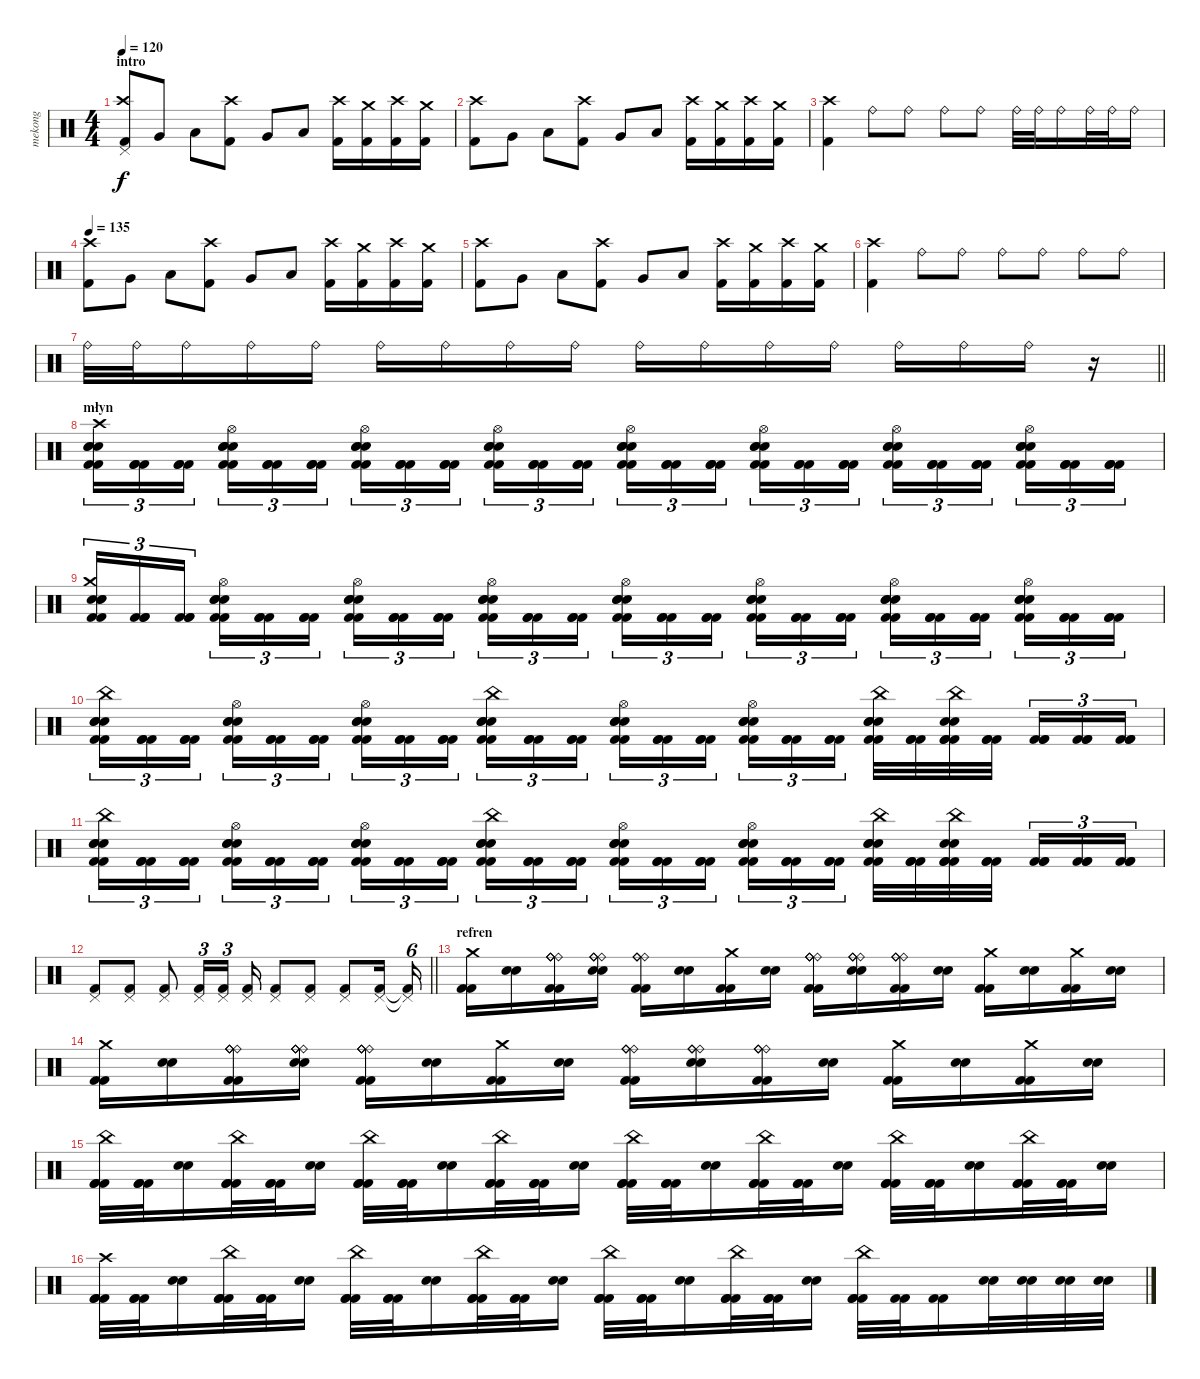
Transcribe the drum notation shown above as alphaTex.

\track ("mekong" "mekong") {instrument percussion}
\staff {score}
\articulation defaults
\ts (4 4)
\section ("" "intro")
\tempo 120
\tempo 135
\tempo 120
\clef neutral
\ks c
("Pedal Hi-Hat (hit)" "Crash high (hit)" "Kick (hit) 2").8{dy f} "Very Low Tom (hit)".8 "Low Floor Tom (hit)".8 ("Crash high (hit)" "Kick (hit) 2").8 "Very Low Tom (hit)".8 "Low Floor Tom (hit)".8 ("Crash high (hit)" "Kick (hit) 2").16 ("Crash medium (hit)" "Kick (hit) 2").16 ("Crash high (hit)" "Kick (hit) 2").16 ("Crash medium (hit)" "Kick (hit) 2").16 |
("Crash high (hit)" "Kick (hit) 2").8 "Very Low Tom (hit)".8 "Low Floor Tom (hit)".8 ("Crash high (hit)" "Kick (hit) 2").8 "Very Low Tom (hit)".8 "Low Floor Tom (hit)".8 ("Crash high (hit)" "Kick (hit) 2").16 ("Crash medium (hit)" "Kick (hit) 2").16 ("Crash high (hit)" "Kick (hit) 2").16 ("Crash medium (hit)" "Kick (hit) 2").16 |
("Crash high (hit)" "Kick (hit) 2").4 "Ride (bell)".8 "Ride (bell)".8 "Ride (bell)".8 "Ride (bell)".8 "Ride (bell)".32 "Ride (bell)".32 "Ride (bell)".16 "Ride (bell)".32 "Ride (bell)".32 "Ride (bell)".16 |
\tempo 135
("Crash high (hit)" "Kick (hit) 2").8 "Very Low Tom (hit)".8 "Low Floor Tom (hit)".8 ("Crash high (hit)" "Kick (hit) 2").8 "Very Low Tom (hit)".8 "Low Floor Tom (hit)".8 ("Crash high (hit)" "Kick (hit) 2").16 ("Crash medium (hit)" "Kick (hit) 2").16 ("Crash high (hit)" "Kick (hit) 2").16 ("Crash medium (hit)" "Kick (hit) 2").16 |
("Crash high (hit)" "Kick (hit) 2").8 "Very Low Tom (hit)".8 "Low Floor Tom (hit)".8 ("Crash high (hit)" "Kick (hit) 2").8 "Very Low Tom (hit)".8 "Low Floor Tom (hit)".8 ("Crash high (hit)" "Kick (hit) 2").16 ("Crash medium (hit)" "Kick (hit) 2").16 ("Crash high (hit)" "Kick (hit) 2").16 ("Crash medium (hit)" "Kick (hit) 2").16 |
("Crash high (hit)" "Kick (hit) 2").4 "Ride (bell)".8 "Ride (bell)".8 "Ride (bell)".8 "Ride (bell)".8 "Ride (bell)".8 "Ride (bell)".8 |
\barLineRight lightlight "Ride (bell)".32 "Ride (bell)".32 "Ride (bell)".16 "Ride (bell)".16 "Ride (bell)".16 "Ride (bell)".16 "Ride (bell)".16 "Ride (bell)".16 "Ride (bell)".16 "Ride (bell)".16 "Ride (bell)".16 "Ride (bell)".16 "Ride (bell)".16 "Ride (bell)".16 "Ride (bell)".16 "Ride (bell)".16
r.16 |
\section ("" "młyn")
("Crash high (hit)" "Kick (hit) 2" "Kick (hit) 2" "Electric Snare (hit)" "Electric Snare (hit)" "Electric Snare (hit)").16{tu (3 2)} ("Kick (hit) 2" "Kick (hit) 2" "Kick (hit) 2").16{tu (3 2)} ("Kick (hit) 2" "Kick (hit) 2" "Kick (hit) 2").16{tu (3 2)} ("Hi-Hat (open)" "Kick (hit) 2" "Kick (hit) 2" "Electric Snare (hit)" "Electric Snare (hit)" "Electric Snare (hit)").16{tu (3 2)} ("Kick (hit) 2" "Kick (hit) 2" "Kick (hit) 2").16{tu (3 2)} ("Kick (hit) 2" "Kick (hit) 2" "Kick (hit) 2").16{tu (3 2)} ("Hi-Hat (open)" "Kick (hit) 2" "Kick (hit) 2" "Electric Snare (hit)" "Electric Snare (hit)" "Electric Snare (hit)").16{tu (3 2)} ("Kick (hit) 2" "Kick (hit) 2" "Kick (hit) 2").16{tu (3 2)} ("Kick (hit) 2" "Kick (hit) 2" "Kick (hit) 2").16{tu (3 2)} ("Hi-Hat (open)" "Kick (hit) 2" "Kick (hit) 2" "Electric Snare (hit)" "Electric Snare (hit)" "Electric Snare (hit)").16{tu (3 2)} ("Kick (hit) 2" "Kick (hit) 2" "Kick (hit) 2").16{tu (3 2)} ("Kick (hit) 2" "Kick (hit) 2" "Kick (hit) 2").16{tu (3 2)} ("Hi-Hat (open)" "Kick (hit) 2" "Kick (hit) 2" "Electric Snare (hit)" "Electric Snare (hit)" "Electric Snare (hit)").16{tu (3 2)} ("Kick (hit) 2" "Kick (hit) 2" "Kick (hit) 2").16{tu (3 2)} ("Kick (hit) 2" "Kick (hit) 2" "Kick (hit) 2").16{tu (3 2)} ("Hi-Hat (open)" "Kick (hit) 2" "Kick (hit) 2" "Electric Snare (hit)" "Electric Snare (hit)" "Electric Snare (hit)").16{tu (3 2)} ("Kick (hit) 2" "Kick (hit) 2" "Kick (hit) 2").16{tu (3 2)} ("Kick (hit) 2" "Kick (hit) 2" "Kick (hit) 2").16{tu (3 2)} ("Hi-Hat (open)" "Kick (hit) 2" "Kick (hit) 2" "Electric Snare (hit)" "Electric Snare (hit)" "Electric Snare (hit)").16{tu (3 2)} ("Kick (hit) 2" "Kick (hit) 2" "Kick (hit) 2").16{tu (3 2)} ("Kick (hit) 2" "Kick (hit) 2" "Kick (hit) 2").16{tu (3 2)} ("Hi-Hat (open)" "Kick (hit) 2" "Kick (hit) 2" "Electric Snare (hit)" "Electric Snare (hit)" "Electric Snare (hit)").16{tu (3 2)} ("Kick (hit) 2" "Kick (hit) 2" "Kick (hit) 2").16{tu (3 2)} ("Kick (hit) 2" "Kick (hit) 2" "Kick (hit) 2").16{tu (3 2)} |
("Crash medium (hit)" "Kick (hit) 2" "Kick (hit) 2" "Electric Snare (hit)" "Electric Snare (hit)" "Electric Snare (hit)").16{tu (3 2)} ("Kick (hit) 2" "Kick (hit) 2" "Kick (hit) 2").16{tu (3 2)} ("Kick (hit) 2" "Kick (hit) 2" "Kick (hit) 2").16{tu (3 2)} ("Hi-Hat (open)" "Kick (hit) 2" "Kick (hit) 2" "Electric Snare (hit)" "Electric Snare (hit)" "Electric Snare (hit)").16{tu (3 2)} ("Kick (hit) 2" "Kick (hit) 2" "Kick (hit) 2").16{tu (3 2)} ("Kick (hit) 2" "Kick (hit) 2" "Kick (hit) 2").16{tu (3 2)} ("Hi-Hat (open)" "Kick (hit) 2" "Kick (hit) 2" "Electric Snare (hit)" "Electric Snare (hit)" "Electric Snare (hit)").16{tu (3 2)} ("Kick (hit) 2" "Kick (hit) 2" "Kick (hit) 2").16{tu (3 2)} ("Kick (hit) 2" "Kick (hit) 2" "Kick (hit) 2").16{tu (3 2)} ("Hi-Hat (open)" "Kick (hit) 2" "Kick (hit) 2" "Electric Snare (hit)" "Electric Snare (hit)" "Electric Snare (hit)").16{tu (3 2)} ("Kick (hit) 2" "Kick (hit) 2" "Kick (hit) 2").16{tu (3 2)} ("Kick (hit) 2" "Kick (hit) 2" "Kick (hit) 2").16{tu (3 2)} ("Hi-Hat (open)" "Kick (hit) 2" "Kick (hit) 2" "Electric Snare (hit)" "Electric Snare (hit)" "Electric Snare (hit)").16{tu (3 2)} ("Kick (hit) 2" "Kick (hit) 2" "Kick (hit) 2").16{tu (3 2)} ("Kick (hit) 2" "Kick (hit) 2" "Kick (hit) 2").16{tu (3 2)} ("Hi-Hat (open)" "Kick (hit) 2" "Kick (hit) 2" "Electric Snare (hit)" "Electric Snare (hit)" "Electric Snare (hit)").16{tu (3 2)} ("Kick (hit) 2" "Kick (hit) 2" "Kick (hit) 2").16{tu (3 2)} ("Kick (hit) 2" "Kick (hit) 2" "Kick (hit) 2").16{tu (3 2)} ("Hi-Hat (open)" "Kick (hit) 2" "Kick (hit) 2" "Electric Snare (hit)" "Electric Snare (hit)" "Electric Snare (hit)").16{tu (3 2)} ("Kick (hit) 2" "Kick (hit) 2" "Kick (hit) 2").16{tu (3 2)} ("Kick (hit) 2" "Kick (hit) 2" "Kick (hit) 2").16{tu (3 2)} ("Hi-Hat (open)" "Kick (hit) 2" "Kick (hit) 2" "Electric Snare (hit)" "Electric Snare (hit)" "Electric Snare (hit)").16{tu (3 2)} ("Kick (hit) 2" "Kick (hit) 2" "Kick (hit) 2").16{tu (3 2)} ("Kick (hit) 2" "Kick (hit) 2" "Kick (hit) 2").16{tu (3 2)} |
("China (hit)" "Kick (hit) 2" "Kick (hit) 2" "Electric Snare (hit)" "Electric Snare (hit)" "Electric Snare (hit)").16{tu (3 2)} ("Kick (hit) 2" "Kick (hit) 2" "Kick (hit) 2").16{tu (3 2)} ("Kick (hit) 2" "Kick (hit) 2" "Kick (hit) 2").16{tu (3 2)} ("Hi-Hat (open)" "Kick (hit) 2" "Kick (hit) 2" "Electric Snare (hit)" "Electric Snare (hit)" "Electric Snare (hit)").16{tu (3 2)} ("Kick (hit) 2" "Kick (hit) 2" "Kick (hit) 2").16{tu (3 2)} ("Kick (hit) 2" "Kick (hit) 2" "Kick (hit) 2").16{tu (3 2)} ("Hi-Hat (open)" "Kick (hit) 2" "Kick (hit) 2" "Electric Snare (hit)" "Electric Snare (hit)" "Electric Snare (hit)").16{tu (3 2)} ("Kick (hit) 2" "Kick (hit) 2" "Kick (hit) 2").16{tu (3 2)} ("Kick (hit) 2" "Kick (hit) 2" "Kick (hit) 2").16{tu (3 2)} ("China (hit)" "Kick (hit) 2" "Kick (hit) 2" "Electric Snare (hit)" "Electric Snare (hit)" "Electric Snare (hit)").16{tu (3 2)} ("Kick (hit) 2" "Kick (hit) 2" "Kick (hit) 2").16{tu (3 2)} ("Kick (hit) 2" "Kick (hit) 2" "Kick (hit) 2").16{tu (3 2)} ("Hi-Hat (open)" "Kick (hit) 2" "Kick (hit) 2" "Electric Snare (hit)" "Electric Snare (hit)" "Electric Snare (hit)").16{tu (3 2)} ("Kick (hit) 2" "Kick (hit) 2" "Kick (hit) 2").16{tu (3 2)} ("Kick (hit) 2" "Kick (hit) 2" "Kick (hit) 2").16{tu (3 2)} ("Hi-Hat (open)" "Kick (hit) 2" "Kick (hit) 2" "Electric Snare (hit)" "Electric Snare (hit)" "Electric Snare (hit)").16{tu (3 2)} ("Kick (hit) 2" "Kick (hit) 2" "Kick (hit) 2").16{tu (3 2)} ("Kick (hit) 2" "Kick (hit) 2" "Kick (hit) 2").16{tu (3 2)} ("China (hit)" "Kick (hit) 2" "Kick (hit) 2" "Electric Snare (hit)" "Electric Snare (hit)" "Electric Snare (hit)").32 ("Kick (hit) 2" "Kick (hit) 2" "Kick (hit) 2").32 ("China (hit)" "Electric Snare (hit)" "Electric Snare (hit)" "Kick (hit) 2" "Kick (hit) 2" "Kick (hit) 2").32 ("Kick (hit) 2" "Kick (hit) 2" "Kick (hit) 2").32 ("Kick (hit) 2" "Kick (hit) 2" "Kick (hit) 2").16{tu (3 2)} ("Kick (hit) 2" "Kick (hit) 2" "Kick (hit) 2").16{tu (3 2)} ("Kick (hit) 2" "Kick (hit) 2" "Kick (hit) 2").16{tu (3 2)} |
("China (hit)" "Kick (hit) 2" "Kick (hit) 2" "Electric Snare (hit)" "Electric Snare (hit)" "Electric Snare (hit)").16{tu (3 2)} ("Kick (hit) 2" "Kick (hit) 2" "Kick (hit) 2").16{tu (3 2)} ("Kick (hit) 2" "Kick (hit) 2" "Kick (hit) 2").16{tu (3 2)} ("Hi-Hat (open)" "Kick (hit) 2" "Kick (hit) 2" "Electric Snare (hit)" "Electric Snare (hit)" "Electric Snare (hit)").16{tu (3 2)} ("Kick (hit) 2" "Kick (hit) 2" "Kick (hit) 2").16{tu (3 2)} ("Kick (hit) 2" "Kick (hit) 2" "Kick (hit) 2").16{tu (3 2)} ("Hi-Hat (open)" "Kick (hit) 2" "Kick (hit) 2" "Electric Snare (hit)" "Electric Snare (hit)" "Electric Snare (hit)").16{tu (3 2)} ("Kick (hit) 2" "Kick (hit) 2" "Kick (hit) 2").16{tu (3 2)} ("Kick (hit) 2" "Kick (hit) 2" "Kick (hit) 2").16{tu (3 2)} ("China (hit)" "Kick (hit) 2" "Kick (hit) 2" "Electric Snare (hit)" "Electric Snare (hit)" "Electric Snare (hit)").16{tu (3 2)} ("Kick (hit) 2" "Kick (hit) 2" "Kick (hit) 2").16{tu (3 2)} ("Kick (hit) 2" "Kick (hit) 2" "Kick (hit) 2").16{tu (3 2)} ("Hi-Hat (open)" "Kick (hit) 2" "Kick (hit) 2" "Electric Snare (hit)" "Electric Snare (hit)" "Electric Snare (hit)").16{tu (3 2)} ("Kick (hit) 2" "Kick (hit) 2" "Kick (hit) 2").16{tu (3 2)} ("Kick (hit) 2" "Kick (hit) 2" "Kick (hit) 2").16{tu (3 2)} ("Hi-Hat (open)" "Kick (hit) 2" "Kick (hit) 2" "Electric Snare (hit)" "Electric Snare (hit)" "Electric Snare (hit)").16{tu (3 2)} ("Kick (hit) 2" "Kick (hit) 2" "Kick (hit) 2").16{tu (3 2)} ("Kick (hit) 2" "Kick (hit) 2" "Kick (hit) 2").16{tu (3 2)} ("China (hit)" "Kick (hit) 2" "Kick (hit) 2" "Electric Snare (hit)" "Electric Snare (hit)" "Electric Snare (hit)").32 ("Kick (hit) 2" "Kick (hit) 2" "Kick (hit) 2").32 ("China (hit)" "Electric Snare (hit)" "Electric Snare (hit)" "Kick (hit) 2" "Kick (hit) 2" "Kick (hit) 2").32 ("Kick (hit) 2" "Kick (hit) 2" "Kick (hit) 2").32 ("Kick (hit) 2" "Kick (hit) 2" "Kick (hit) 2").16{tu (3 2)} ("Kick (hit) 2" "Kick (hit) 2" "Kick (hit) 2").16{tu (3 2)} ("Kick (hit) 2" "Kick (hit) 2" "Kick (hit) 2").16{tu (3 2)} |
\barLineRight lightlight
("Pedal Hi-Hat (hit)" "Kick (hit) 2").8 ("Pedal Hi-Hat (hit)" "Kick (hit) 2").8 ("Pedal Hi-Hat (hit)" "Kick (hit) 2").8 ("Pedal Hi-Hat (hit)" "Kick (hit) 2").16{tu (3 2)} ("Pedal Hi-Hat (hit)" "Kick (hit) 2").16{tu (3 2)} ("Pedal Hi-Hat (hit)" "Kick (hit) 2").16 ("Pedal Hi-Hat (hit)" "Kick (hit) 2").8 ("Pedal Hi-Hat (hit)" "Kick (hit) 2").8 ("Pedal Hi-Hat (hit)" "Kick (hit) 2").8 ("Pedal Hi-Hat (hit)" "Kick (hit) 2").16 ("Pedal Hi-Hat (hit)"{t} "Kick (hit) 2"{t}).16{tu (6 4)} |
\section ("" "refren")
("Crash medium (hit)" "Kick (hit) 2" "Kick (hit) 2").16 ("Electric Snare (hit)" "Electric Snare (hit)").16 ("Ride (bell)" "Ride (bell)" "Ride (bell)" "Ride (bell)" "Kick (hit) 2" "Kick (hit) 2").16 ("Ride (bell)" "Ride (bell)" "Ride (bell)" "Ride (bell)" "Electric Snare (hit)" "Electric Snare (hit)").16 ("Ride (bell)" "Ride (bell)" "Ride (bell)" "Ride (bell)" "Kick (hit) 2" "Kick (hit) 2").16 ("Electric Snare (hit)" "Electric Snare (hit)").16 ("Crash medium (hit)" "Kick (hit) 2" "Kick (hit) 2").16 ("Electric Snare (hit)" "Electric Snare (hit)").16 ("Ride (bell)" "Ride (bell)" "Ride (bell)" "Ride (bell)" "Kick (hit) 2" "Kick (hit) 2").16 ("Ride (bell)" "Ride (bell)" "Ride (bell)" "Ride (bell)" "Electric Snare (hit)" "Electric Snare (hit)").16 ("Ride (bell)" "Ride (bell)" "Ride (bell)" "Ride (bell)" "Kick (hit) 2" "Kick (hit) 2").16 ("Electric Snare (hit)" "Electric Snare (hit)").16 ("Crash medium (hit)" "Kick (hit) 2" "Kick (hit) 2").16 ("Electric Snare (hit)" "Electric Snare (hit)").16 ("Crash medium (hit)" "Kick (hit) 2" "Kick (hit) 2").16 ("Electric Snare (hit)" "Electric Snare (hit)").16 |
("Crash medium (hit)" "Kick (hit) 2" "Kick (hit) 2").16 ("Electric Snare (hit)" "Electric Snare (hit)").16 ("Ride (bell)" "Ride (bell)" "Ride (bell)" "Ride (bell)" "Kick (hit) 2" "Kick (hit) 2").16 ("Ride (bell)" "Ride (bell)" "Ride (bell)" "Ride (bell)" "Electric Snare (hit)" "Electric Snare (hit)").16 ("Ride (bell)" "Ride (bell)" "Ride (bell)" "Ride (bell)" "Kick (hit) 2" "Kick (hit) 2").16 ("Electric Snare (hit)" "Electric Snare (hit)").16 ("Crash medium (hit)" "Kick (hit) 2" "Kick (hit) 2").16 ("Electric Snare (hit)" "Electric Snare (hit)").16 ("Ride (bell)" "Ride (bell)" "Ride (bell)" "Ride (bell)" "Kick (hit) 2" "Kick (hit) 2").16 ("Ride (bell)" "Ride (bell)" "Ride (bell)" "Ride (bell)" "Electric Snare (hit)" "Electric Snare (hit)").16 ("Ride (bell)" "Ride (bell)" "Ride (bell)" "Ride (bell)" "Kick (hit) 2" "Kick (hit) 2").16 ("Electric Snare (hit)" "Electric Snare (hit)").16 ("Crash medium (hit)" "Kick (hit) 2" "Kick (hit) 2").16 ("Electric Snare (hit)" "Electric Snare (hit)").16 ("Crash medium (hit)" "Kick (hit) 2" "Kick (hit) 2").16 ("Electric Snare (hit)" "Electric Snare (hit)").16 |
("China (hit)" "Kick (hit) 2" "Kick (hit) 2" "Kick (hit) 2").32 ("Kick (hit) 2" "Kick (hit) 2" "Kick (hit) 2").32 ("Electric Snare (hit)" "Electric Snare (hit)").16 ("China (hit)" "Kick (hit) 2" "Kick (hit) 2" "Kick (hit) 2").32 ("Kick (hit) 2" "Kick (hit) 2" "Kick (hit) 2").32 ("Electric Snare (hit)" "Electric Snare (hit)").16 ("China (hit)" "Kick (hit) 2" "Kick (hit) 2" "Kick (hit) 2").32 ("Kick (hit) 2" "Kick (hit) 2" "Kick (hit) 2").32 ("Electric Snare (hit)" "Electric Snare (hit)").16 ("China (hit)" "Kick (hit) 2" "Kick (hit) 2" "Kick (hit) 2").32 ("Kick (hit) 2" "Kick (hit) 2" "Kick (hit) 2").32 ("Electric Snare (hit)" "Electric Snare (hit)").16 ("China (hit)" "Kick (hit) 2" "Kick (hit) 2" "Kick (hit) 2").32 ("Kick (hit) 2" "Kick (hit) 2" "Kick (hit) 2").32 ("Electric Snare (hit)" "Electric Snare (hit)").16 ("China (hit)" "Kick (hit) 2" "Kick (hit) 2" "Kick (hit) 2").32 ("Kick (hit) 2" "Kick (hit) 2" "Kick (hit) 2").32 ("Electric Snare (hit)" "Electric Snare (hit)").16 ("China (hit)" "Kick (hit) 2" "Kick (hit) 2" "Kick (hit) 2").32 ("Kick (hit) 2" "Kick (hit) 2" "Kick (hit) 2").32 ("Electric Snare (hit)" "Electric Snare (hit)").16 ("China (hit)" "Kick (hit) 2" "Kick (hit) 2" "Kick (hit) 2").32 ("Kick (hit) 2" "Kick (hit) 2" "Kick (hit) 2").32 ("Electric Snare (hit)" "Electric Snare (hit)").16 |
("Crash high (hit)" "Kick (hit) 2" "Kick (hit) 2" "Kick (hit) 2").32 ("Kick (hit) 2" "Kick (hit) 2" "Kick (hit) 2").32 ("Electric Snare (hit)" "Electric Snare (hit)").16 ("China (hit)" "Kick (hit) 2" "Kick (hit) 2" "Kick (hit) 2").32 ("Kick (hit) 2" "Kick (hit) 2" "Kick (hit) 2").32 ("Electric Snare (hit)" "Electric Snare (hit)").16 ("China (hit)" "Kick (hit) 2" "Kick (hit) 2" "Kick (hit) 2").32 ("Kick (hit) 2" "Kick (hit) 2" "Kick (hit) 2").32 ("Electric Snare (hit)" "Electric Snare (hit)").16 ("China (hit)" "Kick (hit) 2" "Kick (hit) 2" "Kick (hit) 2").32 ("Kick (hit) 2" "Kick (hit) 2" "Kick (hit) 2").32 ("Electric Snare (hit)" "Electric Snare (hit)").16 ("China (hit)" "Kick (hit) 2" "Kick (hit) 2" "Kick (hit) 2").32 ("Kick (hit) 2" "Kick (hit) 2" "Kick (hit) 2").32 ("Electric Snare (hit)" "Electric Snare (hit)").16 ("China (hit)" "Kick (hit) 2" "Kick (hit) 2" "Kick (hit) 2").32 ("Kick (hit) 2" "Kick (hit) 2" "Kick (hit) 2").32 ("Electric Snare (hit)" "Electric Snare (hit)").16 ("China (hit)" "Kick (hit) 2" "Kick (hit) 2" "Kick (hit) 2").32 ("Kick (hit) 2" "Kick (hit) 2").32 ("Kick (hit) 2" "Kick (hit) 2").16 ("Electric Snare (hit)" "Electric Snare (hit)").32 ("Electric Snare (hit)" "Electric Snare (hit)").32 ("Electric Snare (hit)" "Electric Snare (hit)").32 ("Electric Snare (hit)" "Electric Snare (hit)").32
